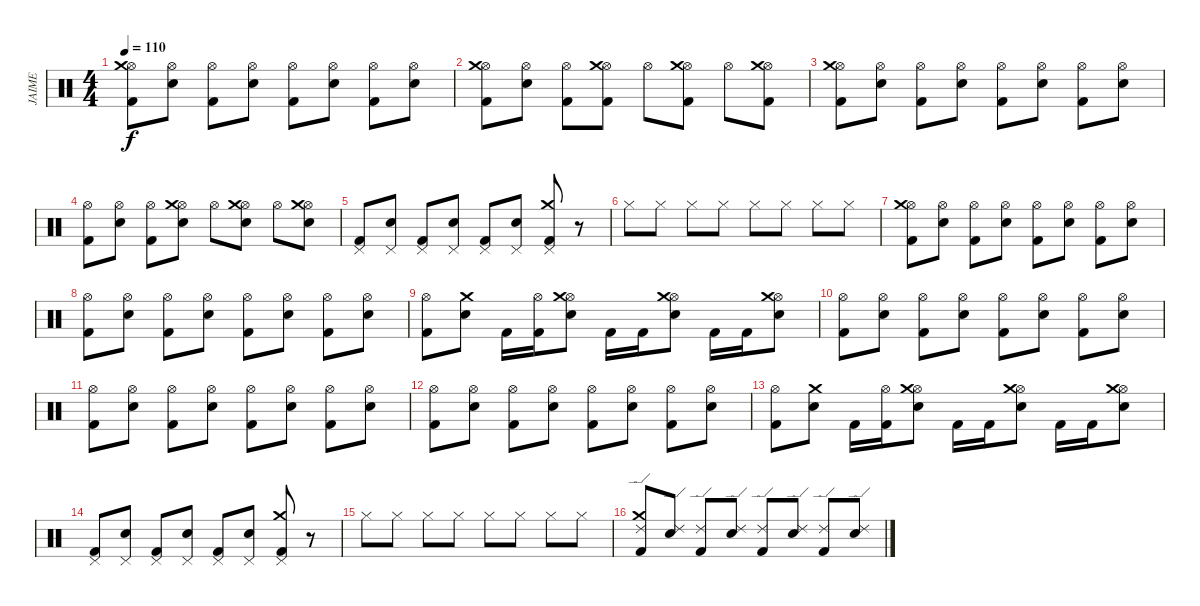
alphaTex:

\track ("JAIME" "JAIME") {instrument percussion}
\staff {score}
\articulation defaults
\ts (4 4)
\tempo 110
\clef neutral
\ks c
("Kick (hit) 2" "Hi-Hat (open)" "Crash medium (hit)").8{dy f} ("Electric Snare (hit)" "Hi-Hat (open)").8 ("Kick (hit) 2" "Hi-Hat (open)").8 ("Electric Snare (hit)" "Hi-Hat (open)").8 ("Kick (hit) 2" "Hi-Hat (open)").8 ("Electric Snare (hit)" "Hi-Hat (open)").8 ("Kick (hit) 2" "Hi-Hat (open)").8 ("Electric Snare (hit)" "Hi-Hat (open)").8 |
("Kick (hit) 2" "Hi-Hat (open)" "Crash medium (hit)").8 ("Electric Snare (hit)" "Hi-Hat (open)").8 ("Kick (hit) 2" "Hi-Hat (open)").8 ("Kick (hit) 2" "Hi-Hat (open)" "Crash medium (hit)").8 "Hi-Hat (open)".8 ("Kick (hit) 2" "Hi-Hat (open)" "Crash medium (hit)").8 "Hi-Hat (open)".8 ("Kick (hit) 2" "Hi-Hat (open)" "Crash medium (hit)").8 |
("Kick (hit) 2" "Hi-Hat (open)" "Crash medium (hit)").8 ("Electric Snare (hit)" "Hi-Hat (open)").8 ("Kick (hit) 2" "Hi-Hat (open)").8 ("Electric Snare (hit)" "Hi-Hat (open)").8 ("Kick (hit) 2" "Hi-Hat (open)").8 ("Electric Snare (hit)" "Hi-Hat (open)").8 ("Kick (hit) 2" "Hi-Hat (open)").8 ("Electric Snare (hit)" "Hi-Hat (open)").8 |
("Kick (hit) 2" "Hi-Hat (open)").8 ("Electric Snare (hit)" "Hi-Hat (open)").8 ("Kick (hit) 2" "Hi-Hat (open)").8 ("Electric Snare (hit)" "Hi-Hat (open)" "Crash medium (hit)").8 "Hi-Hat (open)".8 ("Electric Snare (hit)" "Hi-Hat (open)" "Crash medium (hit)").8 "Hi-Hat (open)".8 ("Electric Snare (hit)" "Hi-Hat (open)" "Crash medium (hit)").8 |
("Kick (hit) 2" "Pedal Hi-Hat (hit)").8 ("Electric Snare (hit)" "Pedal Hi-Hat (hit)").8 ("Kick (hit) 2" "Pedal Hi-Hat (hit)").8 ("Electric Snare (hit)" "Pedal Hi-Hat (hit)").8 ("Kick (hit) 2" "Pedal Hi-Hat (hit)").8 ("Electric Snare (hit)" "Pedal Hi-Hat (hit)").8 ("Kick (hit) 2" "Crash medium (hit)" "Pedal Hi-Hat (hit)").8 r.8 |
"Hi-Hat (closed)".8 "Hi-Hat (closed)".8 "Hi-Hat (closed)".8 "Hi-Hat (closed)".8 "Hi-Hat (closed)".8 "Hi-Hat (closed)".8 "Hi-Hat (closed)".8 "Hi-Hat (closed)".8 |
("Kick (hit) 2" "Hi-Hat (open)" "Crash medium (hit)").8 ("Electric Snare (hit)" "Hi-Hat (open)").8 ("Kick (hit) 2" "Hi-Hat (open)").8 ("Electric Snare (hit)" "Hi-Hat (open)").8 ("Kick (hit) 2" "Hi-Hat (open)").8 ("Electric Snare (hit)" "Hi-Hat (open)").8 ("Kick (hit) 2" "Hi-Hat (open)").8 ("Electric Snare (hit)" "Hi-Hat (open)").8 |
("Kick (hit) 2" "Hi-Hat (open)").8 ("Electric Snare (hit)" "Hi-Hat (open)").8 ("Kick (hit) 2" "Hi-Hat (open)").8 ("Electric Snare (hit)" "Hi-Hat (open)").8 ("Kick (hit) 2" "Hi-Hat (open)").8 ("Electric Snare (hit)" "Hi-Hat (open)").8 ("Kick (hit) 2" "Hi-Hat (open)").8 ("Electric Snare (hit)" "Hi-Hat (open)").8 |
("Kick (hit) 2" "Hi-Hat (open)").8 ("Electric Snare (hit)" "Crash medium (hit)").8 "Kick (hit) 2".16 ("Kick (hit) 2" "Hi-Hat (open)").16 ("Electric Snare (hit)" "Hi-Hat (open)" "Crash medium (hit)").8 "Kick (hit) 2".16 "Kick (hit) 2".16 ("Electric Snare (hit)" "Hi-Hat (open)" "Crash medium (hit)").8 "Kick (hit) 2".16 "Kick (hit) 2".16 ("Electric Snare (hit)" "Hi-Hat (open)" "Crash medium (hit)").8 |
("Kick (hit) 2" "Hi-Hat (open)").8 ("Electric Snare (hit)" "Hi-Hat (open)").8 ("Kick (hit) 2" "Hi-Hat (open)").8 ("Electric Snare (hit)" "Hi-Hat (open)").8 ("Kick (hit) 2" "Hi-Hat (open)").8 ("Electric Snare (hit)" "Hi-Hat (open)").8 ("Kick (hit) 2" "Hi-Hat (open)").8 ("Electric Snare (hit)" "Hi-Hat (open)").8 |
("Kick (hit) 2" "Hi-Hat (open)").8 ("Electric Snare (hit)" "Hi-Hat (open)").8 ("Kick (hit) 2" "Hi-Hat (open)").8 ("Electric Snare (hit)" "Hi-Hat (open)").8 ("Kick (hit) 2" "Hi-Hat (open)").8 ("Electric Snare (hit)" "Hi-Hat (open)").8 ("Kick (hit) 2" "Hi-Hat (open)").8 ("Electric Snare (hit)" "Hi-Hat (open)").8 |
("Kick (hit) 2" "Hi-Hat (open)").8 ("Electric Snare (hit)" "Hi-Hat (open)").8 ("Kick (hit) 2" "Hi-Hat (open)").8 ("Electric Snare (hit)" "Hi-Hat (open)").8 ("Kick (hit) 2" "Hi-Hat (open)").8 ("Electric Snare (hit)" "Hi-Hat (open)").8 ("Kick (hit) 2" "Hi-Hat (open)").8 ("Electric Snare (hit)" "Hi-Hat (open)").8 |
("Kick (hit) 2" "Hi-Hat (open)").8 ("Electric Snare (hit)" "Crash medium (hit)").8 "Kick (hit) 2".16 ("Kick (hit) 2" "Hi-Hat (open)").16 ("Electric Snare (hit)" "Hi-Hat (open)" "Crash medium (hit)").8 "Kick (hit) 2".16 "Kick (hit) 2".16 ("Electric Snare (hit)" "Hi-Hat (open)" "Crash medium (hit)").8 "Kick (hit) 2".16 "Kick (hit) 2".16 ("Electric Snare (hit)" "Hi-Hat (open)" "Crash medium (hit)").8 |
("Kick (hit) 2" "Pedal Hi-Hat (hit)").8 ("Electric Snare (hit)" "Pedal Hi-Hat (hit)").8 ("Kick (hit) 2" "Pedal Hi-Hat (hit)").8 ("Electric Snare (hit)" "Pedal Hi-Hat (hit)").8 ("Kick (hit) 2" "Pedal Hi-Hat (hit)").8 ("Electric Snare (hit)" "Pedal Hi-Hat (hit)").8 ("Kick (hit) 2" "Crash medium (hit)" "Pedal Hi-Hat (hit)").8 r.8 |
"Hi-Hat (closed)".8 "Hi-Hat (closed)".8 "Hi-Hat (closed)".8 "Hi-Hat (closed)".8 "Hi-Hat (closed)".8 "Hi-Hat (closed)".8 "Hi-Hat (closed)".8 "Hi-Hat (closed)".8 |
("Kick (hit) 2" "Ride (edge) 2" "Crash medium (hit)").8 ("Electric Snare (hit)" "Ride (edge) 2").8 ("Kick (hit) 2" "Ride (edge) 2").8 ("Electric Snare (hit)" "Ride (edge) 2").8 ("Kick (hit) 2" "Ride (edge) 2").8 ("Electric Snare (hit)" "Ride (edge) 2").8 ("Kick (hit) 2" "Ride (edge) 2").8 ("Electric Snare (hit)" "Ride (edge) 2").8
